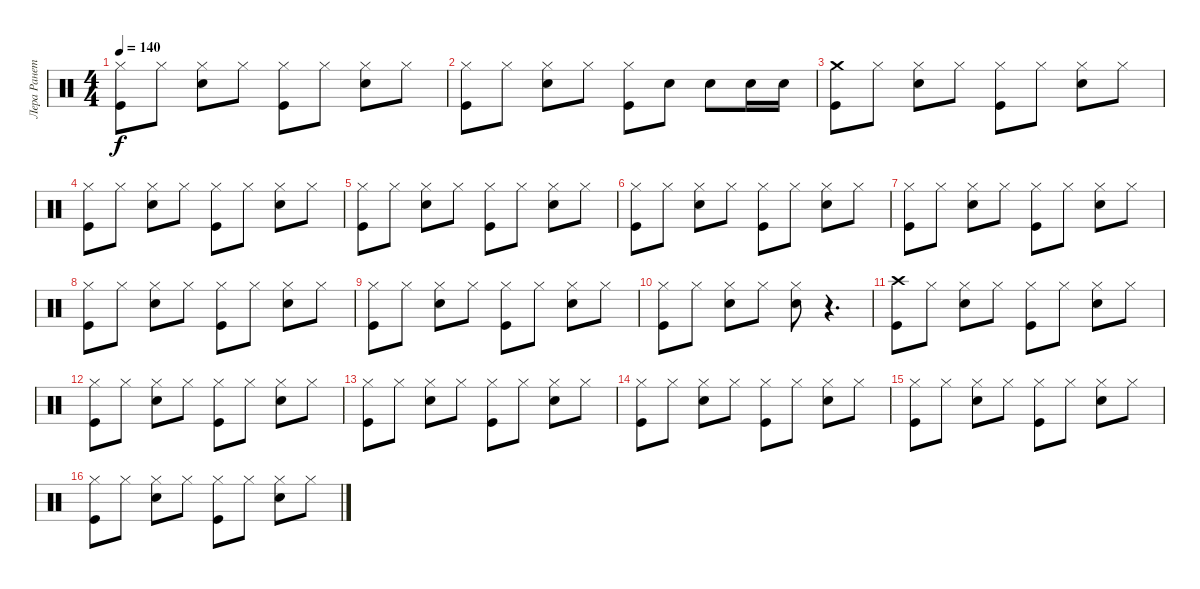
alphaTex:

\track ("Лера Ранетка" "Лера Ранет") {instrument percussion}
\staff {score}
\articulation defaults
\ts (4 4)
\tempo 140
\clef neutral
\ks c
("Hi-Hat (closed)" "Kick (hit)").8{dy f} "Hi-Hat (closed)".8 ("Hi-Hat (closed)" "Electric Snare (hit)").8 "Hi-Hat (closed)".8 ("Hi-Hat (closed)" "Kick (hit)").8 "Hi-Hat (closed)".8 ("Hi-Hat (closed)" "Electric Snare (hit)").8 "Hi-Hat (closed)".8 |
("Hi-Hat (closed)" "Kick (hit)").8 "Hi-Hat (closed)".8 ("Hi-Hat (closed)" "Electric Snare (hit)").8 "Hi-Hat (closed)".8 ("Hi-Hat (closed)" "Kick (hit)").8 "Electric Snare (hit)".8 "Electric Snare (hit)".8 "Electric Snare (hit)".16 "Electric Snare (hit)".16 |
("Crash medium (hit)" "Kick (hit)").8 "Hi-Hat (closed)".8 ("Hi-Hat (closed)" "Electric Snare (hit)").8 "Hi-Hat (closed)".8 ("Hi-Hat (closed)" "Kick (hit)").8 "Hi-Hat (closed)".8 ("Hi-Hat (closed)" "Electric Snare (hit)").8 "Hi-Hat (closed)".8 |
("Hi-Hat (closed)" "Kick (hit)").8 "Hi-Hat (closed)".8 ("Hi-Hat (closed)" "Electric Snare (hit)").8 "Hi-Hat (closed)".8 ("Hi-Hat (closed)" "Kick (hit)").8 "Hi-Hat (closed)".8 ("Hi-Hat (closed)" "Electric Snare (hit)").8 "Hi-Hat (closed)".8 |
("Hi-Hat (closed)" "Kick (hit)").8 "Hi-Hat (closed)".8 ("Hi-Hat (closed)" "Electric Snare (hit)").8 "Hi-Hat (closed)".8 ("Hi-Hat (closed)" "Kick (hit)").8 "Hi-Hat (closed)".8 ("Hi-Hat (closed)" "Electric Snare (hit)").8 "Hi-Hat (closed)".8 |
("Hi-Hat (closed)" "Kick (hit)").8 "Hi-Hat (closed)".8 ("Hi-Hat (closed)" "Electric Snare (hit)").8 "Hi-Hat (closed)".8 ("Hi-Hat (closed)" "Kick (hit)").8 "Hi-Hat (closed)".8 ("Hi-Hat (closed)" "Electric Snare (hit)").8 "Hi-Hat (closed)".8 |
("Hi-Hat (closed)" "Kick (hit)").8 "Hi-Hat (closed)".8 ("Hi-Hat (closed)" "Electric Snare (hit)").8 "Hi-Hat (closed)".8 ("Hi-Hat (closed)" "Kick (hit)").8 "Hi-Hat (closed)".8 ("Hi-Hat (closed)" "Electric Snare (hit)").8 "Hi-Hat (closed)".8 |
("Hi-Hat (closed)" "Kick (hit)").8 "Hi-Hat (closed)".8 ("Hi-Hat (closed)" "Electric Snare (hit)").8 "Hi-Hat (closed)".8 ("Hi-Hat (closed)" "Kick (hit)").8 "Hi-Hat (closed)".8 ("Hi-Hat (closed)" "Electric Snare (hit)").8 "Hi-Hat (closed)".8 |
("Hi-Hat (closed)" "Kick (hit)").8 "Hi-Hat (closed)".8 ("Hi-Hat (closed)" "Electric Snare (hit)").8 "Hi-Hat (closed)".8 ("Hi-Hat (closed)" "Kick (hit)").8 "Hi-Hat (closed)".8 ("Hi-Hat (closed)" "Electric Snare (hit)").8 "Hi-Hat (closed)".8 |
("Hi-Hat (closed)" "Kick (hit)").8 "Hi-Hat (closed)".8 ("Hi-Hat (closed)" "Electric Snare (hit)").8 "Hi-Hat (closed)".8 ("Hi-Hat (closed)" "Electric Snare (hit)").8 r.4{d} |
("Crash high (hit)" "Kick (hit)").8 "Hi-Hat (closed)".8 ("Hi-Hat (closed)" "Electric Snare (hit)").8 "Hi-Hat (closed)".8 ("Hi-Hat (closed)" "Kick (hit)").8 "Hi-Hat (closed)".8 ("Hi-Hat (closed)" "Electric Snare (hit)").8 "Hi-Hat (closed)".8 |
("Hi-Hat (closed)" "Kick (hit)").8 "Hi-Hat (closed)".8 ("Hi-Hat (closed)" "Electric Snare (hit)").8 "Hi-Hat (closed)".8 ("Hi-Hat (closed)" "Kick (hit)").8 "Hi-Hat (closed)".8 ("Hi-Hat (closed)" "Electric Snare (hit)").8 "Hi-Hat (closed)".8 |
("Hi-Hat (closed)" "Kick (hit)").8 "Hi-Hat (closed)".8 ("Hi-Hat (closed)" "Electric Snare (hit)").8 "Hi-Hat (closed)".8 ("Hi-Hat (closed)" "Kick (hit)").8 "Hi-Hat (closed)".8 ("Hi-Hat (closed)" "Electric Snare (hit)").8 "Hi-Hat (closed)".8 |
("Hi-Hat (closed)" "Kick (hit)").8 "Hi-Hat (closed)".8 ("Hi-Hat (closed)" "Electric Snare (hit)").8 "Hi-Hat (closed)".8 ("Hi-Hat (closed)" "Kick (hit)").8 "Hi-Hat (closed)".8 ("Hi-Hat (closed)" "Electric Snare (hit)").8 "Hi-Hat (closed)".8 |
("Hi-Hat (closed)" "Kick (hit)").8 "Hi-Hat (closed)".8 ("Hi-Hat (closed)" "Electric Snare (hit)").8 "Hi-Hat (closed)".8 ("Hi-Hat (closed)" "Kick (hit)").8 "Hi-Hat (closed)".8 ("Hi-Hat (closed)" "Electric Snare (hit)").8 "Hi-Hat (closed)".8 |
("Hi-Hat (closed)" "Kick (hit)").8 "Hi-Hat (closed)".8 ("Hi-Hat (closed)" "Electric Snare (hit)").8 "Hi-Hat (closed)".8 ("Hi-Hat (closed)" "Kick (hit)").8 "Hi-Hat (closed)".8 ("Hi-Hat (closed)" "Electric Snare (hit)").8 "Hi-Hat (closed)".8
